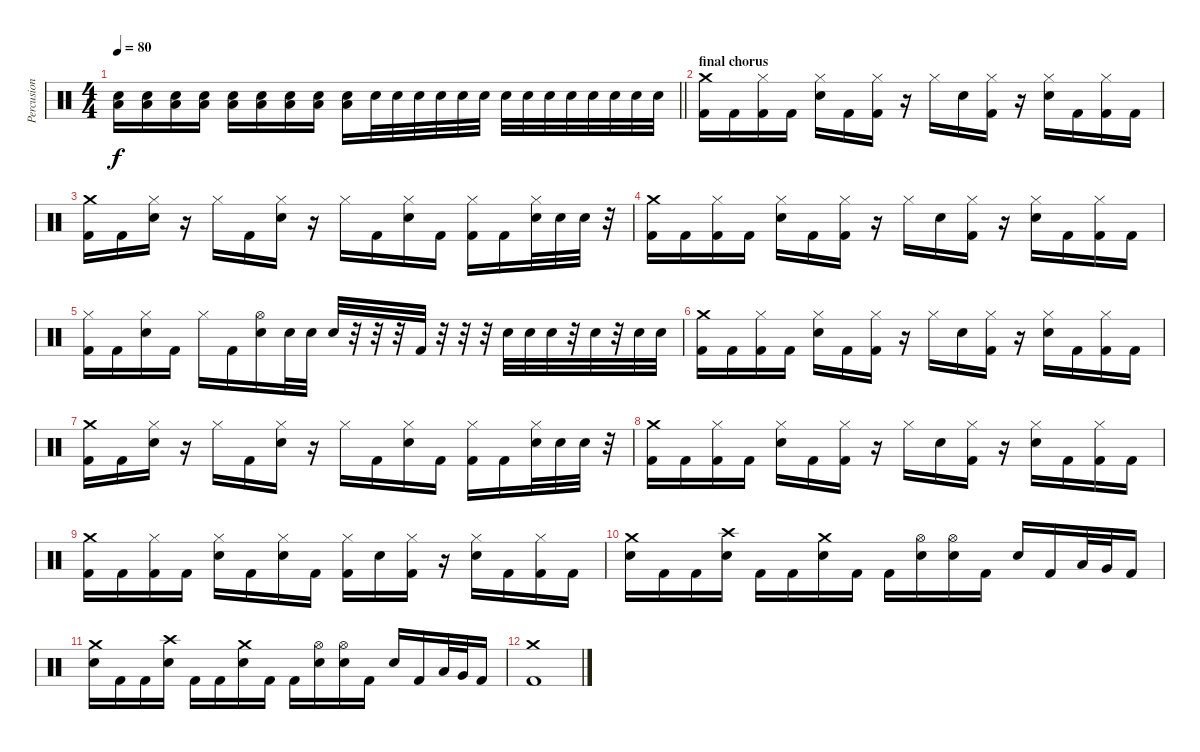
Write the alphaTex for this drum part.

\track ("Percusion" "Percusion") {instrument percussion}
\staff {score}
\articulation defaults
\ts (4 4)
\tempo 80
\clef neutral
\barLineRight lightlight
\ks c
("Electric Snare (hit)"{pm} "Low Floor Tom (hit)").16{dy f} ("Electric Snare (hit)"{pm} "Low Floor Tom (hit)").16 ("Electric Snare (hit)"{pm} "Low Floor Tom (hit)").16 ("Electric Snare (hit)"{pm} "Low Floor Tom (hit)").16 ("Electric Snare (hit)"{pm} "Low Floor Tom (hit)").16 ("Electric Snare (hit)" "Low Floor Tom (hit)").16 ("Electric Snare (hit)" "Low Floor Tom (hit)").16 ("Electric Snare (hit)" "Low Floor Tom (hit)").16 ("Electric Snare (hit)" "Low Floor Tom (hit)").16 "Electric Snare (hit)".32 "Electric Snare (hit)".32 "Electric Snare (hit)".32 "Electric Snare (hit)".32 "Electric Snare (hit)".32 "Electric Snare (hit)".32 "Electric Snare (hit)".32 "Electric Snare (hit)".32 "Electric Snare (hit)".32 "Electric Snare (hit)".32 "Electric Snare (hit)".32 "Electric Snare (hit)".32 "Electric Snare (hit)".32 "Electric Snare (hit)".32 |
\section ("" "final chorus")
("Crash medium (hit)" "Kick (hit) 2").16 "Kick (hit) 2".16 ("Hi-Hat (closed)" "Kick (hit) 2").16 "Kick (hit) 2".16 ("Hi-Hat (closed)" "Electric Snare (hit)").16 "Kick (hit) 2".16 ("Hi-Hat (closed)" "Kick (hit) 2").16 r.16 "Hi-Hat (closed)".16 "Electric Snare (hit)".16 ("Hi-Hat (closed)" "Kick (hit) 2").16 r.16 ("Hi-Hat (closed)" "Electric Snare (hit)").16 "Kick (hit) 2".16 ("Hi-Hat (closed)" "Kick (hit) 2").16 "Kick (hit) 2".16 |
("Crash medium (hit)" "Kick (hit) 2").16 "Kick (hit) 2".16 ("Hi-Hat (closed)" "Electric Snare (hit)").16 r.16 "Hi-Hat (closed)".16 "Kick (hit) 2".16 ("Hi-Hat (closed)" "Electric Snare (hit)").16 r.16 "Hi-Hat (closed)".16 "Kick (hit) 2".16 ("Hi-Hat (closed)" "Electric Snare (hit)").16 "Kick (hit) 2".16 ("Hi-Hat (closed)" "Kick (hit) 2").16 "Kick (hit) 2".16 ("Hi-Hat (closed)" "Electric Snare (hit)").32 "Electric Snare (hit)".32 "Electric Snare (hit)".32 r.32 |
("Crash medium (hit)" "Kick (hit) 2").16 "Kick (hit) 2".16 ("Hi-Hat (closed)" "Kick (hit) 2").16 "Kick (hit) 2".16 ("Hi-Hat (closed)" "Electric Snare (hit)").16 "Kick (hit) 2".16 ("Hi-Hat (closed)" "Kick (hit) 2").16 r.16 "Hi-Hat (closed)".16 "Electric Snare (hit)".16 ("Hi-Hat (closed)" "Kick (hit) 2").16 r.16 ("Hi-Hat (closed)" "Electric Snare (hit)").16 "Kick (hit) 2".16 ("Hi-Hat (closed)" "Kick (hit) 2").16 "Kick (hit) 2".16 |
("Hi-Hat (closed)" "Kick (hit) 2").16 "Kick (hit) 2".16 ("Hi-Hat (closed)" "Electric Snare (hit)").16 "Kick (hit) 2".16 "Hi-Hat (closed)".16 "Kick (hit) 2".16 ("Hi-Hat (open)" "Electric Snare (hit)").16 "Electric Snare (hit)".32 "Electric Snare (hit)".32 "Electric Snare (hit)".32 r.32 r.32 r.32 "Kick (hit) 2".32 r.32 r.32 r.32 "Electric Snare (hit)".32 "Electric Snare (hit)".32 "Electric Snare (hit)".32 r.32 "Electric Snare (hit)".32 r.32 "Electric Snare (hit)".32 "Electric Snare (hit)".32 |
("Crash medium (hit)" "Kick (hit) 2").16 "Kick (hit) 2".16 ("Hi-Hat (closed)" "Kick (hit) 2").16 "Kick (hit) 2".16 ("Hi-Hat (closed)" "Electric Snare (hit)").16 "Kick (hit) 2".16 ("Hi-Hat (closed)" "Kick (hit) 2").16 r.16 "Hi-Hat (closed)".16 "Electric Snare (hit)".16 ("Hi-Hat (closed)" "Kick (hit) 2").16 r.16 ("Hi-Hat (closed)" "Electric Snare (hit)").16 "Kick (hit) 2".16 ("Hi-Hat (closed)" "Kick (hit) 2").16 "Kick (hit) 2".16 |
("Crash medium (hit)" "Kick (hit) 2").16 "Kick (hit) 2".16 ("Hi-Hat (closed)" "Electric Snare (hit)").16 r.16 "Hi-Hat (closed)".16 "Kick (hit) 2".16 ("Hi-Hat (closed)" "Electric Snare (hit)").16 r.16 "Hi-Hat (closed)".16 "Kick (hit) 2".16 ("Hi-Hat (closed)" "Electric Snare (hit)").16 "Kick (hit) 2".16 ("Hi-Hat (closed)" "Kick (hit) 2").16 "Kick (hit) 2".16 ("Hi-Hat (closed)" "Electric Snare (hit)").32 "Electric Snare (hit)".32 "Electric Snare (hit)".32 r.32 |
("Crash medium (hit)" "Kick (hit) 2").16 "Kick (hit) 2".16 ("Hi-Hat (closed)" "Kick (hit) 2").16 "Kick (hit) 2".16 ("Hi-Hat (closed)" "Electric Snare (hit)").16 "Kick (hit) 2".16 ("Hi-Hat (closed)" "Kick (hit) 2").16 r.16 "Hi-Hat (closed)".16 "Electric Snare (hit)".16 ("Hi-Hat (closed)" "Kick (hit) 2").16 r.16 ("Hi-Hat (closed)" "Electric Snare (hit)").16 "Kick (hit) 2".16 ("Hi-Hat (closed)" "Kick (hit) 2").16 "Kick (hit) 2".16 |
("Crash medium (hit)" "Kick (hit) 2").16 "Kick (hit) 2".16 ("Hi-Hat (closed)" "Kick (hit) 2").16 "Kick (hit) 2".16 ("Hi-Hat (closed)" "Electric Snare (hit)").16 "Kick (hit) 2".16 ("Hi-Hat (closed)" "Electric Snare (hit)").16 "Kick (hit) 2".16 ("Hi-Hat (closed)" "Kick (hit) 2").16 "Electric Snare (hit)".16 ("Hi-Hat (closed)" "Kick (hit) 2").16 r.16 ("Hi-Hat (closed)" "Electric Snare (hit)").16 "Kick (hit) 2".16 ("Hi-Hat (closed)" "Kick (hit) 2").16 "Kick (hit) 2".16 |
("Crash medium (hit)" "Electric Snare (hit)").16 "Kick (hit) 2".16 "Kick (hit) 2".16 ("Crash high (hit)" "Electric Snare (hit)").16 "Kick (hit) 2".16 "Kick (hit) 2".16 ("Crash medium (hit)" "Electric Snare (hit)").16 "Kick (hit) 2".16 "Kick (hit) 2".16 ("Hi-Hat (open)" "Electric Snare (hit)").16 ("Hi-Hat (open)" "Electric Snare (hit)").16 "Kick (hit) 2".16 "Electric Snare (hit)".16 "Kick (hit) 2".16 "Low Floor Tom (hit)".32 "Very Low Tom (hit)".32 "Kick (hit) 2".16 |
("Crash medium (hit)" "Electric Snare (hit)").16 "Kick (hit) 2".16 "Kick (hit) 2".16 ("Crash high (hit)" "Electric Snare (hit)").16 "Kick (hit) 2".16 "Kick (hit) 2".16 ("Crash medium (hit)" "Electric Snare (hit)").16 "Kick (hit) 2".16 "Kick (hit) 2".16 ("Hi-Hat (open)" "Electric Snare (hit)").16 ("Hi-Hat (open)" "Electric Snare (hit)").16 "Kick (hit) 2".16 "Electric Snare (hit)".16 "Kick (hit) 2".16 "Low Floor Tom (hit)".32 "Very Low Tom (hit)".32 "Kick (hit) 2".16 |
("Crash medium (hit)" "Kick (hit) 2").1
